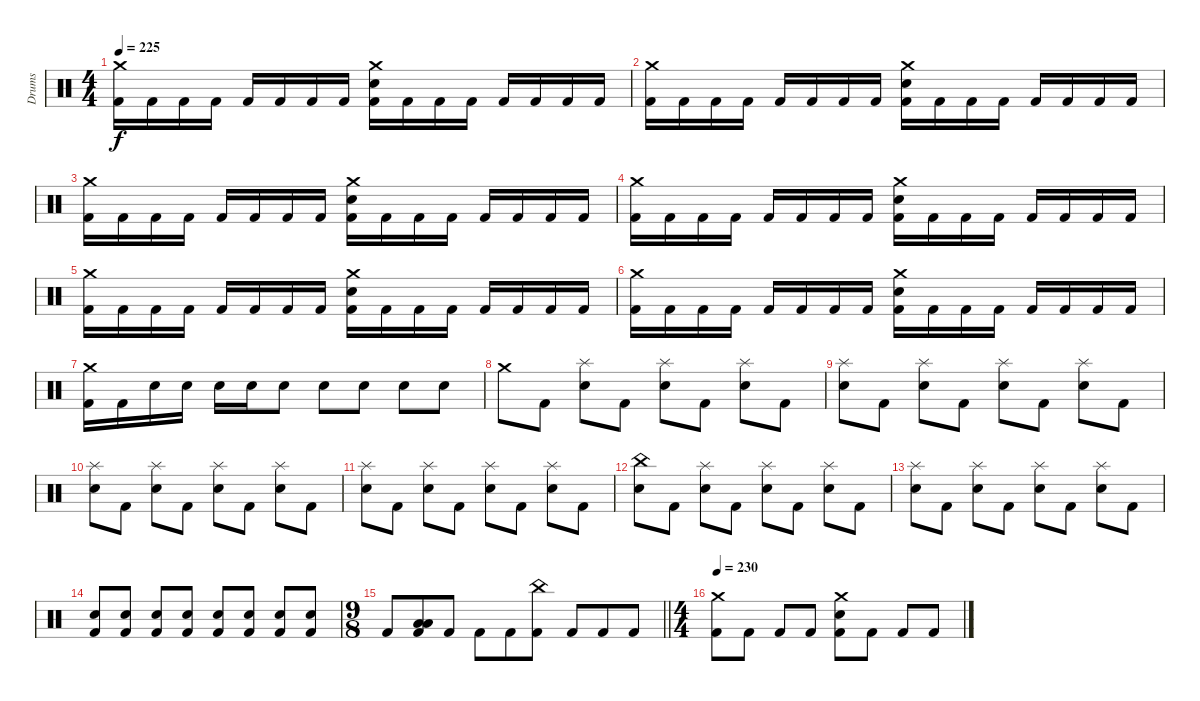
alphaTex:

\track ("Drums" "Drums") {instrument percussion}
\staff {score}
\articulation defaults
\ts (4 4)
\tempo 225
\clef neutral
\ks c
("Crash medium (hit)" "Kick (hit) 2").16{dy f} "Kick (hit) 2".16 "Kick (hit) 2".16 "Kick (hit) 2".16 "Kick (hit) 2".16 "Kick (hit) 2".16 "Kick (hit) 2".16 "Kick (hit) 2".16 ("Crash medium (hit)" "Snare (hit) 2" "Kick (hit) 2").16 "Kick (hit) 2".16 "Kick (hit) 2".16 "Kick (hit) 2".16 "Kick (hit) 2".16 "Kick (hit) 2".16 "Kick (hit) 2".16 "Kick (hit) 2".16 |
("Crash medium (hit)" "Kick (hit) 2").16 "Kick (hit) 2".16 "Kick (hit) 2".16 "Kick (hit) 2".16 "Kick (hit) 2".16 "Kick (hit) 2".16 "Kick (hit) 2".16 "Kick (hit) 2".16 ("Crash medium (hit)" "Snare (hit) 2" "Kick (hit) 2").16 "Kick (hit) 2".16 "Kick (hit) 2".16 "Kick (hit) 2".16 "Kick (hit) 2".16 "Kick (hit) 2".16 "Kick (hit) 2".16 "Kick (hit) 2".16 |
("Crash medium (hit)" "Kick (hit) 2").16 "Kick (hit) 2".16 "Kick (hit) 2".16 "Kick (hit) 2".16 "Kick (hit) 2".16 "Kick (hit) 2".16 "Kick (hit) 2".16 "Kick (hit) 2".16 ("Crash medium (hit)" "Snare (hit) 2" "Kick (hit) 2").16 "Kick (hit) 2".16 "Kick (hit) 2".16 "Kick (hit) 2".16 "Kick (hit) 2".16 "Kick (hit) 2".16 "Kick (hit) 2".16 "Kick (hit) 2".16 |
("Crash medium (hit)" "Kick (hit) 2").16 "Kick (hit) 2".16 "Kick (hit) 2".16 "Kick (hit) 2".16 "Kick (hit) 2".16 "Kick (hit) 2".16 "Kick (hit) 2".16 "Kick (hit) 2".16 ("Crash medium (hit)" "Snare (hit) 2" "Kick (hit) 2").16 "Kick (hit) 2".16 "Kick (hit) 2".16 "Kick (hit) 2".16 "Kick (hit) 2".16 "Kick (hit) 2".16 "Kick (hit) 2".16 "Kick (hit) 2".16 |
("Crash medium (hit)" "Kick (hit) 2").16 "Kick (hit) 2".16 "Kick (hit) 2".16 "Kick (hit) 2".16 "Kick (hit) 2".16 "Kick (hit) 2".16 "Kick (hit) 2".16 "Kick (hit) 2".16 ("Crash medium (hit)" "Snare (hit) 2" "Kick (hit) 2").16 "Kick (hit) 2".16 "Kick (hit) 2".16 "Kick (hit) 2".16 "Kick (hit) 2".16 "Kick (hit) 2".16 "Kick (hit) 2".16 "Kick (hit) 2".16 |
("Crash medium (hit)" "Kick (hit) 2").16 "Kick (hit) 2".16 "Kick (hit) 2".16 "Kick (hit) 2".16 "Kick (hit) 2".16 "Kick (hit) 2".16 "Kick (hit) 2".16 "Kick (hit) 2".16 ("Crash medium (hit)" "Snare (hit) 2" "Kick (hit) 2").16 "Kick (hit) 2".16 "Kick (hit) 2".16 "Kick (hit) 2".16 "Kick (hit) 2".16 "Kick (hit) 2".16 "Kick (hit) 2".16 "Kick (hit) 2".16 |
("Crash medium (hit)" "Kick (hit) 2").16 "Kick (hit) 2".16 "Snare (hit) 2".16 "Snare (hit) 2".16 "Snare (hit) 2".16 "Snare (hit) 2".16 "Snare (hit) 2".8 "Snare (hit) 2".8 "Snare (hit) 2".8 "Snare (hit) 2".8 "Snare (hit) 2".8 |
"Crash medium (hit)".8 "Kick (hit) 2".8 ("Splash (hit)" "Snare (hit) 2").8 "Kick (hit) 2".8 ("Splash (hit)" "Snare (hit) 2").8 "Kick (hit) 2".8 ("Splash (hit)" "Snare (hit) 2").8 "Kick (hit) 2".8 |
("Splash (hit)" "Snare (hit) 2").8 "Kick (hit) 2".8 ("Splash (hit)" "Snare (hit) 2").8 "Kick (hit) 2".8 ("Splash (hit)" "Snare (hit) 2").8 "Kick (hit) 2".8 ("Splash (hit)" "Snare (hit) 2").8 "Kick (hit) 2".8 |
("Splash (hit)" "Snare (hit) 2").8 "Kick (hit) 2".8 ("Splash (hit)" "Snare (hit) 2").8 "Kick (hit) 2".8 ("Splash (hit)" "Snare (hit) 2").8 "Kick (hit) 2".8 ("Splash (hit)" "Snare (hit) 2").8 "Kick (hit) 2".8 |
("Splash (hit)" "Snare (hit) 2").8 "Kick (hit) 2".8 ("Splash (hit)" "Snare (hit) 2").8 "Kick (hit) 2".8 ("Splash (hit)" "Snare (hit) 2").8 "Kick (hit) 2".8 ("Splash (hit)" "Snare (hit) 2").8 "Kick (hit) 2".8 |
("China (hit)" "Snare (hit) 2").8 "Kick (hit) 2".8 ("Splash (hit)" "Snare (hit) 2").8 "Kick (hit) 2".8 ("Splash (hit)" "Snare (hit) 2").8 "Kick (hit) 2".8 ("Splash (hit)" "Snare (hit) 2").8 "Kick (hit) 2".8 |
("Splash (hit)" "Snare (hit) 2").8 "Kick (hit) 2".8 ("Splash (hit)" "Snare (hit) 2").8 "Kick (hit) 2".8 ("Splash (hit)" "Snare (hit) 2").8 "Kick (hit) 2".8 ("Splash (hit)" "Snare (hit) 2").8 "Kick (hit) 2".8 |
("Snare (hit) 2" "Kick (hit) 2").8 ("Snare (hit) 2" "Kick (hit) 2").8 ("Snare (hit) 2" "Kick (hit) 2").8 ("Snare (hit) 2" "Kick (hit) 2").8 ("Snare (hit) 2" "Kick (hit) 2").8 ("Snare (hit) 2" "Kick (hit) 2").8 ("Snare (hit) 2" "Kick (hit) 2").8 ("Snare (hit) 2" "Kick (hit) 2").8 |
\ts (9 8)
\barLineRight lightlight "Kick (hit) 2".8
("Low Tom (hit)" "Low Floor Tom (hit)" "Kick (hit) 2").8 "Kick (hit) 2".8 "Kick (hit) 2".8 "Kick (hit) 2".8 ("China (hit)" "Kick (hit) 2").8 "Kick (hit) 2".8 "Kick (hit) 2".8 "Kick (hit) 2".8 |
\ts (4 4)
\tempo 230
("Crash medium (hit)" "Kick (hit) 2").8 "Kick (hit) 2".8 "Kick (hit) 2".8 "Kick (hit) 2".8 ("Crash medium (hit)" "Snare (hit) 2" "Kick (hit) 2").8 "Kick (hit) 2".8 "Kick (hit) 2".8 "Kick (hit) 2".8
